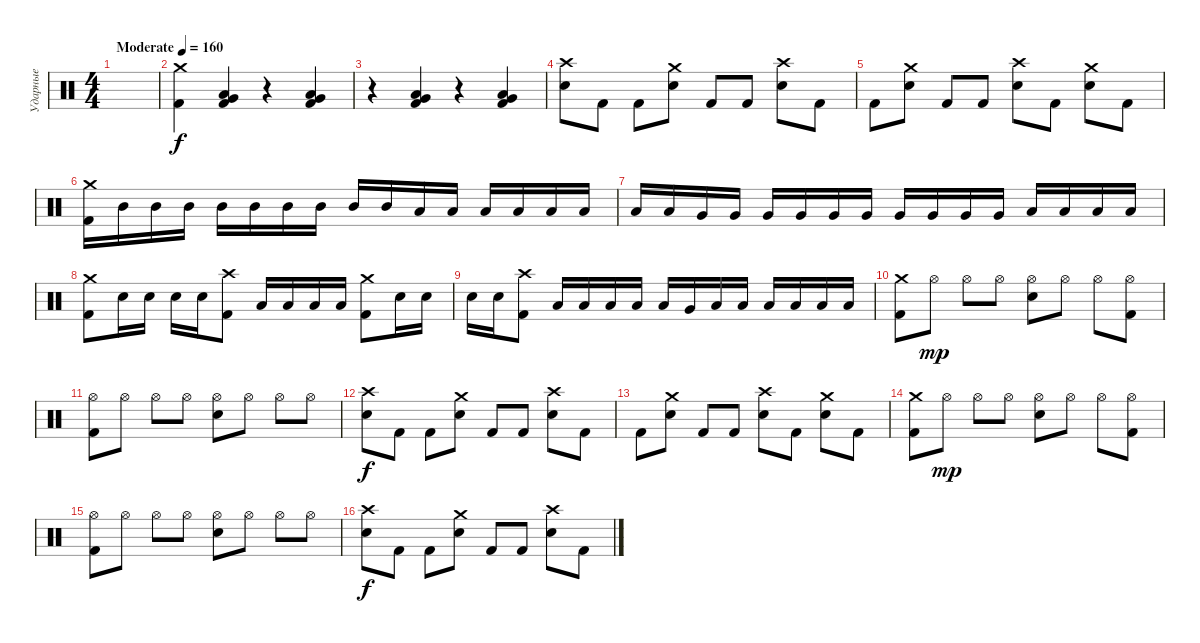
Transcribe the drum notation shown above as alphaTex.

\track ("Ударные" "Ударные") {instrument percussion}
\staff {score}
\articulation defaults
\ts (4 4)
\tempo (160 "Moderate")
\clef neutral
\ks c
|
("Crash medium (hit)" "Kick (hit) 2").4 ("Low Tom (hit)" "Very Low Tom (hit)" "Kick (hit) 2").4 r.4 ("Low Tom (hit)" "Very Low Tom (hit)" "Kick (hit) 2").4 |
r.4 ("Low Tom (hit)" "Very Low Tom (hit)" "Kick (hit) 2").4 r.4 ("Low Tom (hit)" "Very Low Tom (hit)" "Kick (hit) 2").4 |
("Crash high (hit)" "Snare (hit) 2").8 "Kick (hit) 2".8 "Kick (hit) 2".8 ("Crash medium (hit)" "Snare (hit) 2").8 "Kick (hit) 2".8 "Kick (hit) 2".8 ("Crash high (hit)" "Snare (hit) 2").8 "Kick (hit) 2".8 |
"Kick (hit) 2".8 ("Crash medium (hit)" "Snare (hit) 2").8 "Kick (hit) 2".8 "Kick (hit) 2".8 ("Crash high (hit)" "Snare (hit) 2").8 "Kick (hit) 2".8 ("Crash medium (hit)" "Snare (hit) 2").8 "Kick (hit) 2".8 |
("Crash medium (hit)" "Kick (hit) 2").16 "Mid Tom (hit)".16 "Mid Tom (hit)".16 "Mid Tom (hit)".16 "Mid Tom (hit)".16 "Mid Tom (hit)".16 "Mid Tom (hit)".16 "Mid Tom (hit)".16 "Mid Tom (hit)".16 "Mid Tom (hit)".16 "Low Tom (hit)".16 "Low Tom (hit)".16 "Low Tom (hit)".16 "Low Tom (hit)".16 "Low Tom (hit)".16 "Low Tom (hit)".16 |
"Low Tom (hit)".16 "Low Tom (hit)".16 "Very Low Tom (hit)".16 "Very Low Tom (hit)".16 "Very Low Tom (hit)".16 "Very Low Tom (hit)".16 "Very Low Tom (hit)".16 "Very Low Tom (hit)".16 "Very Low Tom (hit)".16 "Very Low Tom (hit)".16 "Very Low Tom (hit)".16 "Very Low Tom (hit)".16 "Low Floor Tom (hit)".16 "Low Floor Tom (hit)".16 "Low Floor Tom (hit)".16 "Low Floor Tom (hit)".16 |
("Crash medium (hit)" "Kick (hit) 2").8 "Snare (hit) 2".16 "Snare (hit) 2".16 "Snare (hit) 2".16 "Snare (hit) 2".16 ("Crash high (hit)" "Kick (hit) 2").8 "Low Tom (hit)".16 "Low Tom (hit)".16 "Low Tom (hit)".16 "Low Tom (hit)".16 ("Crash medium (hit)" "Kick (hit) 2").8 "Snare (hit) 2".16 "Snare (hit) 2".16 |
"Snare (hit) 2".16 "Snare (hit) 2".16 ("Crash high (hit)" "Kick (hit) 2").8 "Low Tom (hit)".16 "Low Tom (hit)".16 "Low Tom (hit)".16 "Low Tom (hit)".16 "Low Tom (hit)".16 "Very Low Tom (hit)".16 "Low Tom (hit)".16 "Low Tom (hit)".16 "Low Tom (hit)".16 "Low Tom (hit)".16 "Low Tom (hit)".16 "Low Tom (hit)".16 |
("Crash medium (hit)" "Kick (hit) 2").8 "Hi-Hat (open)".8{dy mp} "Hi-Hat (open)".8 "Hi-Hat (open)".8 ("Hi-Hat (open)" "Snare (hit) 2").8 "Hi-Hat (open)".8 "Hi-Hat (open)".8 ("Hi-Hat (open)" "Kick (hit) 2").8 |
("Hi-Hat (open)" "Kick (hit) 2").8 "Hi-Hat (open)".8 "Hi-Hat (open)".8 "Hi-Hat (open)".8 ("Hi-Hat (open)" "Snare (hit) 2").8 "Hi-Hat (open)".8 "Hi-Hat (open)".8 "Hi-Hat (open)".8 |
("Crash high (hit)" "Snare (hit) 2").8{dy f} "Kick (hit) 2".8 "Kick (hit) 2".8 ("Crash medium (hit)" "Snare (hit) 2").8 "Kick (hit) 2".8 "Kick (hit) 2".8 ("Crash high (hit)" "Snare (hit) 2").8 "Kick (hit) 2".8 |
"Kick (hit) 2".8 ("Crash medium (hit)" "Snare (hit) 2").8 "Kick (hit) 2".8 "Kick (hit) 2".8 ("Crash high (hit)" "Snare (hit) 2").8 "Kick (hit) 2".8 ("Crash medium (hit)" "Snare (hit) 2").8 "Kick (hit) 2".8 |
("Crash medium (hit)" "Kick (hit) 2").8 "Hi-Hat (open)".8{dy mp} "Hi-Hat (open)".8 "Hi-Hat (open)".8 ("Hi-Hat (open)" "Snare (hit) 2").8 "Hi-Hat (open)".8 "Hi-Hat (open)".8 ("Hi-Hat (open)" "Kick (hit) 2").8 |
("Hi-Hat (open)" "Kick (hit) 2").8 "Hi-Hat (open)".8 "Hi-Hat (open)".8 "Hi-Hat (open)".8 ("Hi-Hat (open)" "Snare (hit) 2").8 "Hi-Hat (open)".8 "Hi-Hat (open)".8 "Hi-Hat (open)".8 |
("Crash high (hit)" "Snare (hit) 2").8{dy f} "Kick (hit) 2".8 "Kick (hit) 2".8 ("Crash medium (hit)" "Snare (hit) 2").8 "Kick (hit) 2".8 "Kick (hit) 2".8 ("Crash high (hit)" "Snare (hit) 2").8 "Kick (hit) 2".8
